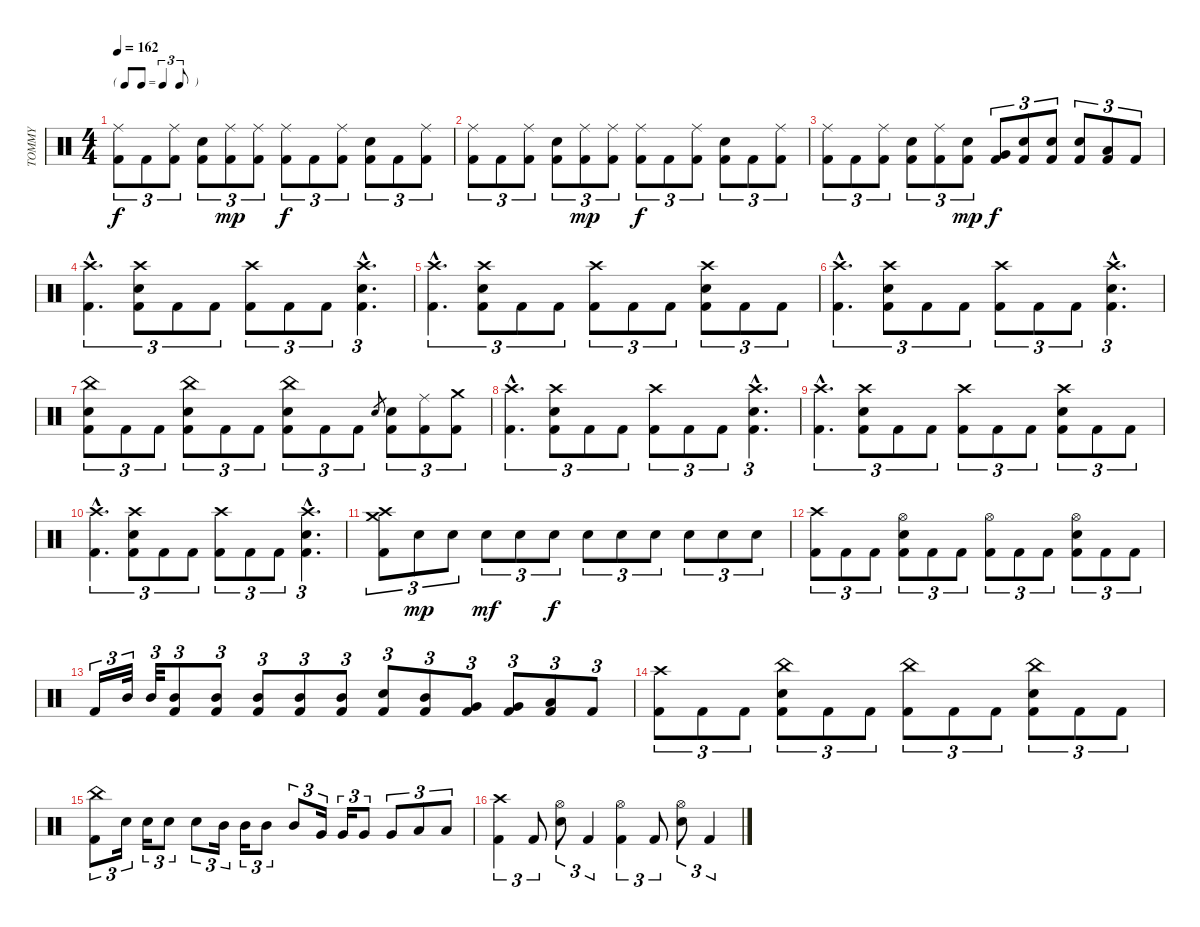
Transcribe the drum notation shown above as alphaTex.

\track ("TOMMY" "TOMMY") {instrument percussion}
\staff {score}
\articulation defaults
\ts (4 4)
\tf triplet8th
\tempo 162
\clef neutral
\ks c
("Kick (hit) 2" "Ride (middle)").8{tu (3 2) dy f} "Kick (hit) 2".8{tu (3 2)} ("Kick (hit) 2" "Ride (middle)").8{tu (3 2)} ("Snare (hit) 2" "Kick (hit) 2").8{tu (3 2)} ("Kick (hit) 2" "Ride (middle)").8{tu (3 2) dy mp} ("Kick (hit) 2" "Ride (middle)").8{tu (3 2)} ("Kick (hit) 2" "Ride (middle)").8{tu (3 2) dy f} "Kick (hit) 2".8{tu (3 2)} ("Kick (hit) 2" "Ride (middle)").8{tu (3 2)} ("Snare (hit) 2" "Kick (hit) 2").8{tu (3 2)} "Kick (hit) 2".8{tu (3 2)} ("Kick (hit) 2" "Ride (middle)").8{tu (3 2)} |
("Kick (hit) 2" "Ride (middle)").8{tu (3 2)} "Kick (hit) 2".8{tu (3 2)} ("Kick (hit) 2" "Ride (middle)").8{tu (3 2)} ("Snare (hit) 2" "Kick (hit) 2").8{tu (3 2)} ("Kick (hit) 2" "Ride (middle)").8{tu (3 2) dy mp} ("Kick (hit) 2" "Ride (middle)").8{tu (3 2)} ("Kick (hit) 2" "Ride (middle)").8{tu (3 2) dy f} "Kick (hit) 2".8{tu (3 2)} ("Kick (hit) 2" "Ride (middle)").8{tu (3 2)} ("Snare (hit) 2" "Kick (hit) 2").8{tu (3 2)} "Kick (hit) 2".8{tu (3 2)} ("Kick (hit) 2" "Ride (middle)").8{tu (3 2)} |
("Kick (hit) 2" "Ride (middle)").8{tu (3 2)} "Kick (hit) 2".8{tu (3 2)} ("Kick (hit) 2" "Ride (middle)").8{tu (3 2)} ("Snare (hit) 2" "Kick (hit) 2").8{tu (3 2)} ("Kick (hit) 2" "Ride (middle)").8{tu (3 2)} ("Snare (hit) 2" "Kick (hit) 2").8{tu (3 2) dy mp} ("Kick (hit) 2" "Very Low Tom (hit)").8{tu (3 2) dy f} ("Snare (hit) 2" "Kick (hit) 2").8{tu (3 2)} ("Snare (hit) 2" "Kick (hit) 2").8{tu (3 2)} ("Snare (hit) 2" "Kick (hit) 2").8{tu (3 2)} ("Kick (hit) 2" "Low Floor Tom (hit)").8{tu (3 2)} "Kick (hit) 2".8{tu (3 2)} |
("Kick (hit) 2"{hac} "Crash high (hit)"{hac}).4{d tu (3 2)} ("Snare (hit) 2" "Kick (hit) 2" "Crash high (hit)").8{tu (3 2)} "Kick (hit) 2".8{tu (3 2)} "Kick (hit) 2".8{tu (3 2)} ("Kick (hit) 2" "Crash high (hit)").8{tu (3 2)} "Kick (hit) 2".8{tu (3 2)} "Kick (hit) 2".8{tu (3 2)} ("Snare (hit) 2"{hac} "Kick (hit) 2"{hac} "Crash high (hit)"{hac}).4{d tu (3 2)} |
("Kick (hit) 2"{hac} "Crash high (hit)"{hac}).4{d tu (3 2)} ("Snare (hit) 2" "Kick (hit) 2" "Crash high (hit)").8{tu (3 2)} "Kick (hit) 2".8{tu (3 2)} "Kick (hit) 2".8{tu (3 2)} ("Kick (hit) 2" "Crash high (hit)").8{tu (3 2)} "Kick (hit) 2".8{tu (3 2)} "Kick (hit) 2".8{tu (3 2)} ("Snare (hit) 2" "Kick (hit) 2" "Crash high (hit)").8{tu (3 2)} "Kick (hit) 2".8{tu (3 2)} "Kick (hit) 2".8{tu (3 2)} |
("Kick (hit) 2"{hac} "Crash high (hit)"{hac}).4{d tu (3 2)} ("Snare (hit) 2" "Kick (hit) 2" "Crash high (hit)").8{tu (3 2)} "Kick (hit) 2".8{tu (3 2)} "Kick (hit) 2".8{tu (3 2)} ("Kick (hit) 2" "Crash high (hit)").8{tu (3 2)} "Kick (hit) 2".8{tu (3 2)} "Kick (hit) 2".8{tu (3 2)} ("Snare (hit) 2"{hac} "Kick (hit) 2"{hac} "Crash high (hit)"{hac}).4{d tu (3 2)} |
("Snare (hit) 2" "Kick (hit) 2" "China (hit)").8{tu (3 2)} "Kick (hit) 2".8{tu (3 2)} "Kick (hit) 2".8{tu (3 2)} ("Snare (hit) 2" "Kick (hit) 2" "China (hit)").8{tu (3 2)} "Kick (hit) 2".8{tu (3 2)} "Kick (hit) 2".8{tu (3 2)} ("Snare (hit) 2" "Kick (hit) 2" "China (hit)").8{tu (3 2)} "Kick (hit) 2".8{tu (3 2)} "Kick (hit) 2".8{tu (3 2)} "Snare (hit) 2".8{gr} ("Snare (hit) 2" "Kick (hit) 2").8{tu (3 2)} ("Kick (hit) 2" "Ride (middle)").8{tu (3 2)} ("Kick (hit) 2" "Crash medium (hit)").8{tu (3 2)} |
("Kick (hit) 2"{hac} "Crash high (hit)"{hac}).4{d tu (3 2)} ("Snare (hit) 2" "Kick (hit) 2" "Crash high (hit)").8{tu (3 2)} "Kick (hit) 2".8{tu (3 2)} "Kick (hit) 2".8{tu (3 2)} ("Kick (hit) 2" "Crash high (hit)").8{tu (3 2)} "Kick (hit) 2".8{tu (3 2)} "Kick (hit) 2".8{tu (3 2)} ("Snare (hit) 2"{hac} "Kick (hit) 2"{hac} "Crash high (hit)"{hac}).4{d tu (3 2)} |
("Kick (hit) 2"{hac} "Crash high (hit)"{hac}).4{d tu (3 2)} ("Snare (hit) 2" "Kick (hit) 2" "Crash high (hit)").8{tu (3 2)} "Kick (hit) 2".8{tu (3 2)} "Kick (hit) 2".8{tu (3 2)} ("Kick (hit) 2" "Crash high (hit)").8{tu (3 2)} "Kick (hit) 2".8{tu (3 2)} "Kick (hit) 2".8{tu (3 2)} ("Snare (hit) 2" "Kick (hit) 2" "Crash high (hit)").8{tu (3 2)} "Kick (hit) 2".8{tu (3 2)} "Kick (hit) 2".8{tu (3 2)} |
("Kick (hit) 2"{hac} "Crash high (hit)"{hac}).4{d tu (3 2)} ("Snare (hit) 2" "Kick (hit) 2" "Crash high (hit)").8{tu (3 2)} "Kick (hit) 2".8{tu (3 2)} "Kick (hit) 2".8{tu (3 2)} ("Kick (hit) 2" "Crash high (hit)").8{tu (3 2)} "Kick (hit) 2".8{tu (3 2)} "Kick (hit) 2".8{tu (3 2)} ("Snare (hit) 2"{hac} "Kick (hit) 2"{hac} "Crash high (hit)"{hac}).4{d tu (3 2)} |
("Kick (hit) 2" "Crash high (hit)" "Crash medium (hit)").8{tu (3 2)} "Snare (hit) 2".8{tu (3 2) dy mp} "Snare (hit) 2".8{tu (3 2)} "Snare (hit) 2".8{tu (3 2) dy mf} "Snare (hit) 2".8{tu (3 2)} "Snare (hit) 2".8{tu (3 2) dy f} "Snare (hit) 2".8{tu (3 2)} "Snare (hit) 2".8{tu (3 2)} "Snare (hit) 2".8{tu (3 2)} "Snare (hit) 2".8{tu (3 2)} "Snare (hit) 2".8{tu (3 2)} "Snare (hit) 2".8{tu (3 2)} |
("Kick (hit) 2" "Crash high (hit)").8{tu (3 2)} "Kick (hit) 2".8{tu (3 2)} "Kick (hit) 2".8{tu (3 2)} ("Snare (hit) 2" "Kick (hit) 2" "Hi-Hat (open)").8{tu (3 2)} "Kick (hit) 2".8{tu (3 2)} "Kick (hit) 2".8{tu (3 2)} ("Kick (hit) 2" "Hi-Hat (open)").8{tu (3 2)} "Kick (hit) 2".8{tu (3 2)} "Kick (hit) 2".8{tu (3 2)} ("Snare (hit) 2" "Kick (hit) 2" "Hi-Hat (open)").8{tu (3 2)} "Kick (hit) 2".8{tu (3 2)} "Kick (hit) 2".8{tu (3 2)} |
"Kick (hit) 2".16{tu (3 2)} "Mid Tom (hit)".32{tu (3 2)} "Mid Tom (hit)".32{tu (3 2)} ("Kick (hit) 2" "Mid Tom (hit)").8{tu (3 2)} ("Kick (hit) 2" "Mid Tom (hit)").8{tu (3 2)} ("Kick (hit) 2" "Mid Tom (hit)").8{tu (3 2)} ("Kick (hit) 2" "Mid Tom (hit)").8{tu (3 2)} ("Kick (hit) 2" "Mid Tom (hit)").8{tu (3 2)} ("Snare (hit) 2" "Kick (hit) 2").8{tu (3 2)} ("Kick (hit) 2" "Mid Tom (hit)").8{tu (3 2)} ("Kick (hit) 2" "Very Low Tom (hit)").8{tu (3 2)} ("Kick (hit) 2" "Very Low Tom (hit)").8{tu (3 2)} ("Kick (hit) 2" "Low Floor Tom (hit)").8{tu (3 2)} "Kick (hit) 2".8{tu (3 2)} |
("Kick (hit) 2" "Crash high (hit)").8{tu (3 2)} "Kick (hit) 2".8{tu (3 2)} "Kick (hit) 2".8{tu (3 2)} ("Snare (hit) 2" "Kick (hit) 2" "China (hit)").8{tu (3 2)} "Kick (hit) 2".8{tu (3 2)} "Kick (hit) 2".8{tu (3 2)} ("Kick (hit) 2" "China (hit)").8{tu (3 2)} "Kick (hit) 2".8{tu (3 2)} "Kick (hit) 2".8{tu (3 2)} ("Snare (hit) 2" "Kick (hit) 2" "China (hit)").8{tu (3 2)} "Kick (hit) 2".8{tu (3 2)} "Kick (hit) 2".8{tu (3 2)} |
("Kick (hit) 2" "China (hit)").8{tu (3 2)} "Snare (hit) 2".16{tu (3 2)} "Snare (hit) 2".16{tu (3 2)} "Snare (hit) 2".8{tu (3 2)} "Snare (hit) 2".8{tu (3 2)} "Mid Tom (hit)".16{tu (3 2)} "Mid Tom (hit)".16{tu (3 2)} "Mid Tom (hit)".8{tu (3 2)} "Mid Tom (hit)".8{tu (3 2)} "Very Low Tom (hit)".16{tu (3 2)} "Very Low Tom (hit)".16{tu (3 2)} "Very Low Tom (hit)".8{tu (3 2)} "Very Low Tom (hit)".8{tu (3 2)} "Low Floor Tom (hit)".8{tu (3 2)} "Low Floor Tom (hit)".8{tu (3 2)} |
("Kick (hit) 2" "Crash high (hit)").4{tu (3 2)} "Kick (hit) 2".8{tu (3 2)} ("Snare (hit) 2" "Hi-Hat (open)").8{tu (3 2)} "Kick (hit) 2".4{tu (3 2)} ("Kick (hit) 2" "Hi-Hat (open)").4{tu (3 2)} "Kick (hit) 2".8{tu (3 2)} ("Snare (hit) 2" "Hi-Hat (open)").8{tu (3 2)} "Kick (hit) 2".4{tu (3 2)}
